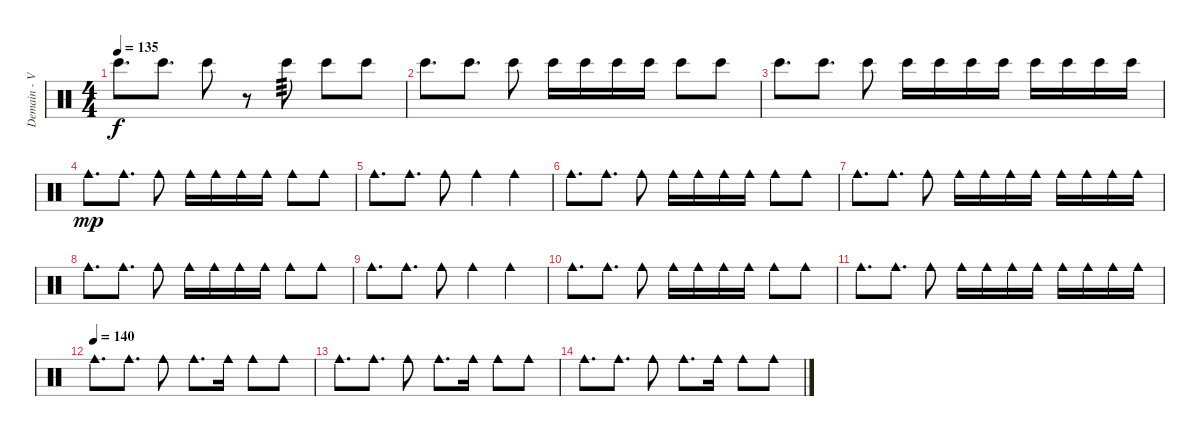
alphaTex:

\track ("Demain - Various Perc." "Demain - V") {instrument percussion}
\staff {score}
\articulation defaults
\ts (4 4)
\tempo 135
\clef neutral
\ks c "Bongo High (hit)".8{d dy f} "Bongo High (hit)".8{d} "Bongo High (hit)".8
r.8 "Bongo High (hit)".8{tp 3} "Bongo High (hit)".8 "Bongo High (hit)".8 |
"Bongo High (hit)".8{d} "Bongo High (hit)".8{d} "Bongo High (hit)".8 "Bongo High (hit)".16 "Bongo High (hit)".16 "Bongo High (hit)".16 "Bongo High (hit)".16 "Bongo High (hit)".8 "Bongo High (hit)".8 |
"Bongo High (hit)".8{d} "Bongo High (hit)".8{d} "Bongo High (hit)".8 "Bongo High (hit)".16 "Bongo High (hit)".16 "Bongo High (hit)".16 "Bongo High (hit)".16 "Bongo High (hit)".16 "Bongo High (hit)".16 "Bongo High (hit)".16 "Bongo High (hit)".16 |
"Cowbell medium (hit)".8{d dy mp} "Cowbell medium (hit)".8{d} "Cowbell medium (hit)".8 "Cowbell medium (hit)".16 "Cowbell medium (hit)".16 "Cowbell medium (hit)".16 "Cowbell medium (hit)".16 "Cowbell medium (hit)".8 "Cowbell medium (hit)".8 |
"Cowbell medium (hit)".8{d} "Cowbell medium (hit)".8{d} "Cowbell medium (hit)".8 "Cowbell medium (hit)".4 "Cowbell medium (hit)".4 |
"Cowbell medium (hit)".8{d} "Cowbell medium (hit)".8{d} "Cowbell medium (hit)".8 "Cowbell medium (hit)".16 "Cowbell medium (hit)".16 "Cowbell medium (hit)".16 "Cowbell medium (hit)".16 "Cowbell medium (hit)".8 "Cowbell medium (hit)".8 |
"Cowbell medium (hit)".8{d} "Cowbell medium (hit)".8{d} "Cowbell medium (hit)".8 "Cowbell medium (hit)".16 "Cowbell medium (hit)".16 "Cowbell medium (hit)".16 "Cowbell medium (hit)".16 "Cowbell medium (hit)".16 "Cowbell medium (hit)".16 "Cowbell medium (hit)".16 "Cowbell medium (hit)".16 |
"Cowbell medium (hit)".8{d} "Cowbell medium (hit)".8{d} "Cowbell medium (hit)".8 "Cowbell medium (hit)".16 "Cowbell medium (hit)".16 "Cowbell medium (hit)".16 "Cowbell medium (hit)".16 "Cowbell medium (hit)".8 "Cowbell medium (hit)".8 |
"Cowbell medium (hit)".8{d} "Cowbell medium (hit)".8{d} "Cowbell medium (hit)".8 "Cowbell medium (hit)".4 "Cowbell medium (hit)".4 |
"Cowbell medium (hit)".8{d} "Cowbell medium (hit)".8{d} "Cowbell medium (hit)".8 "Cowbell medium (hit)".16 "Cowbell medium (hit)".16 "Cowbell medium (hit)".16 "Cowbell medium (hit)".16 "Cowbell medium (hit)".8 "Cowbell medium (hit)".8 |
"Cowbell medium (hit)".8{d} "Cowbell medium (hit)".8{d} "Cowbell medium (hit)".8 "Cowbell medium (hit)".16 "Cowbell medium (hit)".16 "Cowbell medium (hit)".16 "Cowbell medium (hit)".16 "Cowbell medium (hit)".16 "Cowbell medium (hit)".16 "Cowbell medium (hit)".16 "Cowbell medium (hit)".16 |
\tempo (140)
"Cowbell medium (hit)".8{d} "Cowbell medium (hit)".8{d} "Cowbell medium (hit)".8 "Cowbell medium (hit)".8{d} "Cowbell medium (hit)".16 "Cowbell medium (hit)".8 "Cowbell medium (hit)".8 |
"Cowbell medium (hit)".8{d} "Cowbell medium (hit)".8{d} "Cowbell medium (hit)".8 "Cowbell medium (hit)".8{d} "Cowbell medium (hit)".16 "Cowbell medium (hit)".8 "Cowbell medium (hit)".8 |
"Cowbell medium (hit)".8{d} "Cowbell medium (hit)".8{d} "Cowbell medium (hit)".8 "Cowbell medium (hit)".8{d} "Cowbell medium (hit)".16 "Cowbell medium (hit)".8 "Cowbell medium (hit)".8
